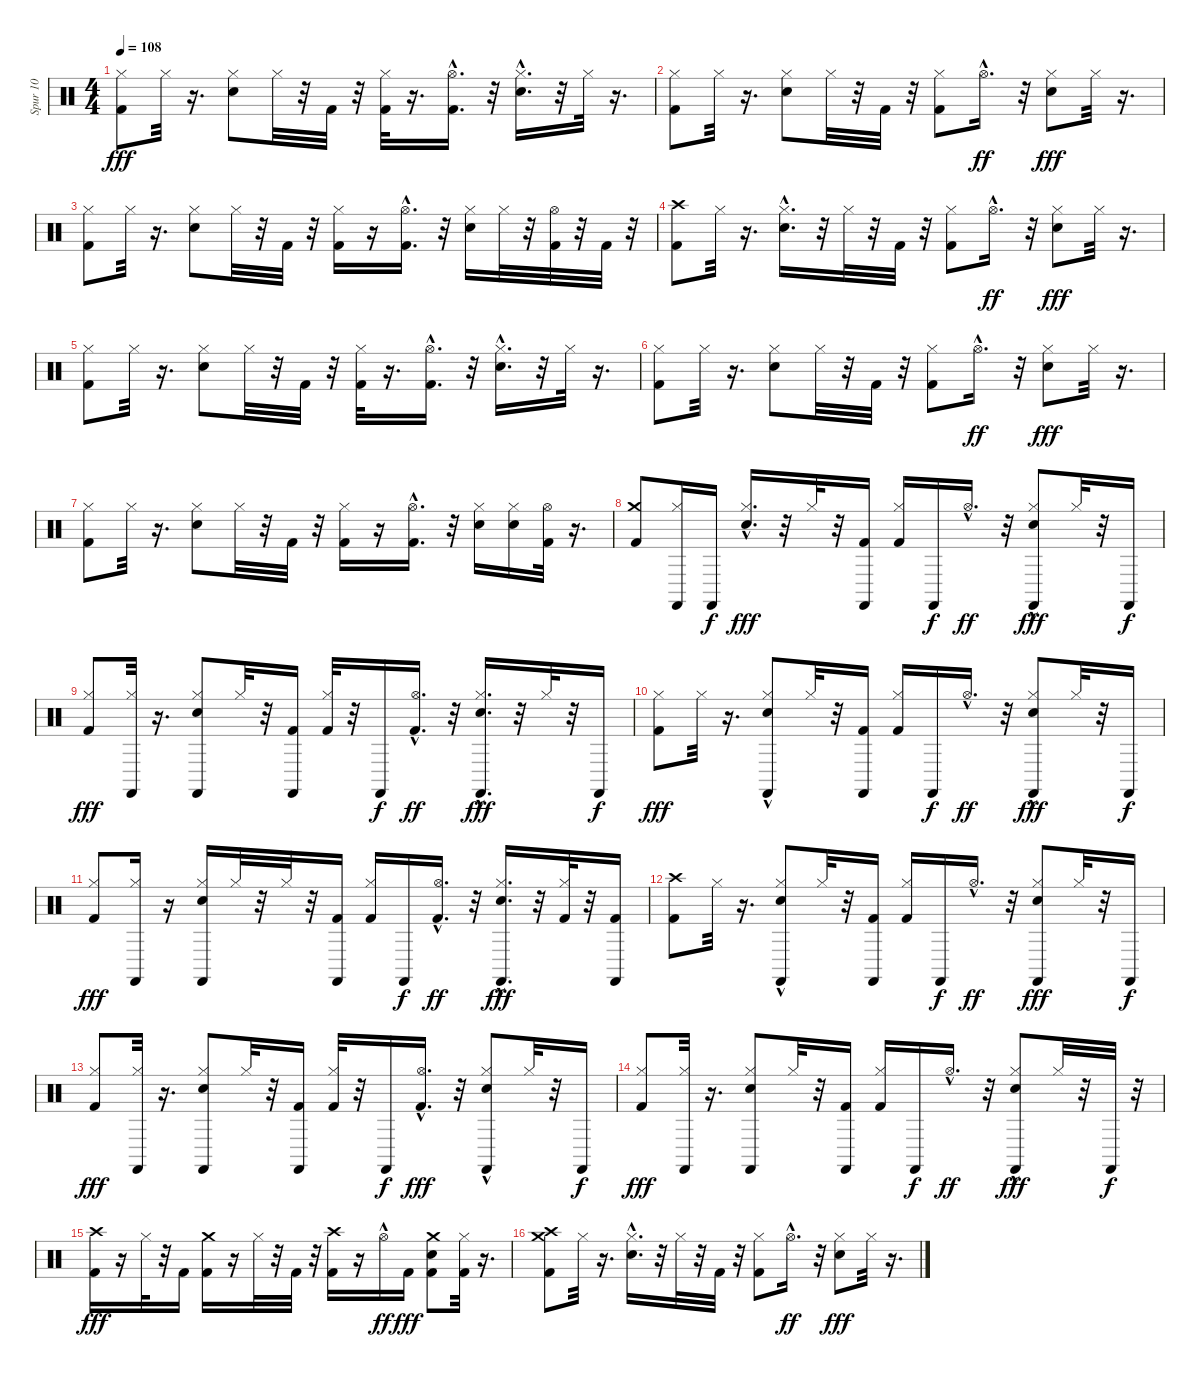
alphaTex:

\track ("Spur 10" "Spur 10") {instrument percussion}
\staff {score}
\articulation defaults
\ts (4 4)
\tempo 108
\clef neutral
\ks c
("Hi-Hat (closed)" "Kick (hit) 2").8{dy fff} "Hi-Hat (closed)".32 r.16{d} ("Hi-Hat (closed)" "Snare (hit) 2").8 "Hi-Hat (closed)".32 r.32 "Kick (hit) 2".32 r.32 ("Hi-Hat (closed)" "Kick (hit) 2").32 r.16{d} ("Hi-Hat (open)"{hac} "Kick (hit) 2").16{d} r.32 ("Hi-Hat (closed)" "Snare (hit) 2"{hac}).16{d} r.32 "Hi-Hat (closed)".32 r.16{d} |
("Hi-Hat (closed)" "Kick (hit) 2").8 "Hi-Hat (closed)".32 r.16{d} ("Hi-Hat (closed)" "Snare (hit) 2").8 "Hi-Hat (closed)".32 r.32 "Kick (hit) 2".32 r.32 ("Hi-Hat (closed)" "Kick (hit) 2").8 "Hi-Hat (open)"{hac}.16{d dy ff} r.32 ("Hi-Hat (closed)" "Snare (hit) 2").8{dy fff} "Hi-Hat (closed)".32 r.16{d} |
("Hi-Hat (closed)" "Kick (hit) 2").8 "Hi-Hat (closed)".32 r.16{d} ("Hi-Hat (closed)" "Snare (hit) 2").8 "Hi-Hat (closed)".32 r.32 "Kick (hit) 2".32 r.32 ("Hi-Hat (closed)" "Kick (hit) 2").16 r.16 ("Hi-Hat (open)"{hac} "Kick (hit) 2").16{d} r.32 ("Hi-Hat (closed)" "Snare (hit) 2").16 "Hi-Hat (closed)".32 r.32 ("Hi-Hat (open)" "Kick (hit) 2").32 r.32 "Kick (hit) 2".32 r.32 |
("Crash high (hit)" "Kick (hit) 2").8 "Hi-Hat (closed)".32 r.16{d} ("Hi-Hat (closed)" "Snare (hit) 2"{hac}).16{d} r.32 "Hi-Hat (closed)".32 r.32 "Kick (hit) 2".32 r.32 ("Hi-Hat (closed)" "Kick (hit) 2").8 "Hi-Hat (open)"{hac}.16{d dy ff} r.32 ("Hi-Hat (closed)" "Snare (hit) 2").8{dy fff} "Hi-Hat (closed)".32 r.16{d} |
("Hi-Hat (closed)" "Kick (hit) 2").8 "Hi-Hat (closed)".32 r.16{d} ("Hi-Hat (closed)" "Snare (hit) 2").8 "Hi-Hat (closed)".32 r.32 "Kick (hit) 2".32 r.32 ("Hi-Hat (closed)" "Kick (hit) 2").32 r.16{d} ("Hi-Hat (open)"{hac} "Kick (hit) 2").16{d} r.32 ("Hi-Hat (closed)" "Snare (hit) 2"{hac}).16{d} r.32 "Hi-Hat (closed)".32 r.16{d} |
("Hi-Hat (closed)" "Kick (hit) 2").8 "Hi-Hat (closed)".32 r.16{d} ("Hi-Hat (closed)" "Snare (hit) 2").8 "Hi-Hat (closed)".32 r.32 "Kick (hit) 2".32 r.32 ("Hi-Hat (closed)" "Kick (hit) 2").8 "Hi-Hat (open)"{hac}.16{d dy ff} r.32 ("Hi-Hat (closed)" "Snare (hit) 2").8{dy fff} "Hi-Hat (closed)".32 r.16{d} |
("Hi-Hat (closed)" "Kick (hit) 2").8 "Hi-Hat (closed)".32 r.16{d} ("Hi-Hat (closed)" "Snare (hit) 2").8 "Hi-Hat (closed)".32 r.32 "Kick (hit) 2".32 r.32 ("Hi-Hat (closed)" "Kick (hit) 2").16 r.16 ("Hi-Hat (open)"{hac} "Kick (hit) 2").16{d} r.32 ("Hi-Hat (closed)" "Electric Snare (hit)").16 ("Hi-Hat (closed)" "Electric Snare (hit)").16 ("Hi-Hat (open)" "Kick (hit) 2").32 r.16{d} |
("Kick (hit) 2" "Crash medium (hit)").8 ("Castanets (hit)" "Hi-Hat (closed)").16 "Castanets (hit)".16{dy f} ("Snare (hit) 2"{hac} "Hi-Hat (closed)").16{d dy fff} r.32 "Hi-Hat (closed)".32 r.32 ("Kick (hit) 2" "Castanets (hit)").16 ("Kick (hit) 2" "Hi-Hat (closed)").16 "Castanets (hit)".16{dy f} "Hi-Hat (open)"{hac}.16{d dy ff} r.32 ("Snare (hit) 2" "Hi-Hat (closed)" "Castanets (hit)"{hac}).8{dy fff} "Hi-Hat (closed)".32 r.32 "Castanets (hit)".16{dy f} |
("Kick (hit) 2" "Hi-Hat (closed)").8{dy fff} ("Hi-Hat (closed)" "Castanets (hit)").32 r.16{d} ("Snare (hit) 2" "Hi-Hat (closed)" "Castanets (hit)").8 "Hi-Hat (closed)".32 r.32 ("Kick (hit) 2" "Castanets (hit)").16 ("Kick (hit) 2" "Hi-Hat (closed)").32 r.32 "Castanets (hit)".16{dy f} ("Kick (hit) 2" "Hi-Hat (open)"{hac}).16{d dy ff} r.32 ("Snare (hit) 2"{hac} "Hi-Hat (closed)" "Castanets (hit)"{hac}).16{d dy fff} r.32 "Hi-Hat (closed)".32 r.32 "Castanets (hit)".16{dy f} |
("Kick (hit) 2" "Hi-Hat (closed)").8{dy fff} "Hi-Hat (closed)".32 r.16{d} ("Snare (hit) 2" "Hi-Hat (closed)" "Castanets (hit)"{hac}).8 "Hi-Hat (closed)".32 r.32 ("Kick (hit) 2" "Castanets (hit)").16 ("Kick (hit) 2" "Hi-Hat (closed)").16 "Castanets (hit)".16{dy f} "Hi-Hat (open)"{hac}.16{d dy ff} r.32 ("Snare (hit) 2" "Hi-Hat (closed)" "Castanets (hit)"{hac}).8{dy fff} "Hi-Hat (closed)".32 r.32 "Castanets (hit)".16{dy f} |
("Kick (hit) 2" "Hi-Hat (closed)").8{dy fff} ("Hi-Hat (closed)" "Castanets (hit)").16 r.16 ("Snare (hit) 2" "Hi-Hat (closed)" "Castanets (hit)").16 "Hi-Hat (closed)".32 r.32 "Hi-Hat (closed)".32 r.32 ("Kick (hit) 2" "Castanets (hit)").16 ("Kick (hit) 2" "Hi-Hat (closed)").16 "Castanets (hit)".16{dy f} ("Kick (hit) 2" "Hi-Hat (open)"{hac}).16{d dy ff} r.32 ("Snare (hit) 2" "Hi-Hat (closed)" "Castanets (hit)"{hac}).16{d dy fff} r.32 ("Kick (hit) 2" "Hi-Hat (closed)").32 r.32 ("Kick (hit) 2" "Castanets (hit)").16 |
("Crash high (hit)" "Kick (hit) 2").8 "Hi-Hat (closed)".32 r.16{d} ("Castanets (hit)" "Hi-Hat (closed)" "Snare (hit) 2"{hac}).8 "Hi-Hat (closed)".32 r.32 ("Castanets (hit)" "Kick (hit) 2").16 ("Hi-Hat (closed)" "Kick (hit) 2").16 "Castanets (hit)".16{dy f} "Hi-Hat (open)"{hac}.16{d dy ff} r.32 ("Castanets (hit)" "Hi-Hat (closed)" "Snare (hit) 2").8{dy fff} "Hi-Hat (closed)".32 r.32 "Castanets (hit)".16{dy f} |
("Hi-Hat (closed)" "Kick (hit) 2").8{dy fff} ("Castanets (hit)" "Hi-Hat (closed)").32 r.16{d} ("Castanets (hit)" "Hi-Hat (closed)" "Snare (hit) 2").8 "Hi-Hat (closed)".32 r.32 ("Castanets (hit)" "Kick (hit) 2").16 ("Hi-Hat (closed)" "Kick (hit) 2").32 r.32 "Castanets (hit)".16{dy f} ("Hi-Hat (open)"{hac} "Kick (hit) 2").16{d dy fff} r.32 ("Castanets (hit)" "Hi-Hat (closed)" "Snare (hit) 2"{hac}).8 "Hi-Hat (closed)".32 r.32 "Castanets (hit)".16{dy f} |
("Hi-Hat (closed)" "Kick (hit) 2").8{dy fff} ("Castanets (hit)" "Hi-Hat (closed)").32 r.16{d} ("Castanets (hit)" "Hi-Hat (closed)" "Snare (hit) 2").8 "Hi-Hat (closed)".32 r.32 ("Castanets (hit)" "Kick (hit) 2").16 ("Hi-Hat (closed)" "Kick (hit) 2").16 "Castanets (hit)".16{dy f} "Hi-Hat (open)"{hac}.16{d dy ff} r.32 ("Castanets (hit)"{hac} "Hi-Hat (closed)" "Snare (hit) 2").8{dy fff} "Hi-Hat (closed)".32 r.32 "Castanets (hit)".32{dy f} r.32 |
("Crash high (hit)" "Kick (hit) 2").16{dy fff} r.16 "Hi-Hat (closed)".32 r.32 "Kick (hit) 2".16 ("Kick (hit) 2" "Crash medium (hit)").16 r.16 "Hi-Hat (closed)".32 r.32 "Kick (hit) 2".32 r.32 ("Crash high (hit)" "Kick (hit) 2").16 r.16 "Hi-Hat (open)"{hac}.16{dy ff} "Kick (hit) 2".16{dy fff} ("Snare (hit) 2" "Kick (hit) 2" "Crash medium (hit)").8 ("Hi-Hat (closed)" "Kick (hit) 2").32 r.16{d} |
("Kick (hit) 2" "Crash medium (hit)" "Crash high (hit)").8 "Hi-Hat (closed)".32 r.16{d} ("Snare (hit) 2"{hac} "Hi-Hat (closed)").16{d} r.32 "Hi-Hat (closed)".32 r.32 "Kick (hit) 2".32 r.32 ("Kick (hit) 2" "Hi-Hat (closed)").8 "Hi-Hat (open)"{hac}.16{d dy ff} r.32 ("Snare (hit) 2" "Hi-Hat (closed)").8{dy fff} "Hi-Hat (closed)".32 r.16{d}
